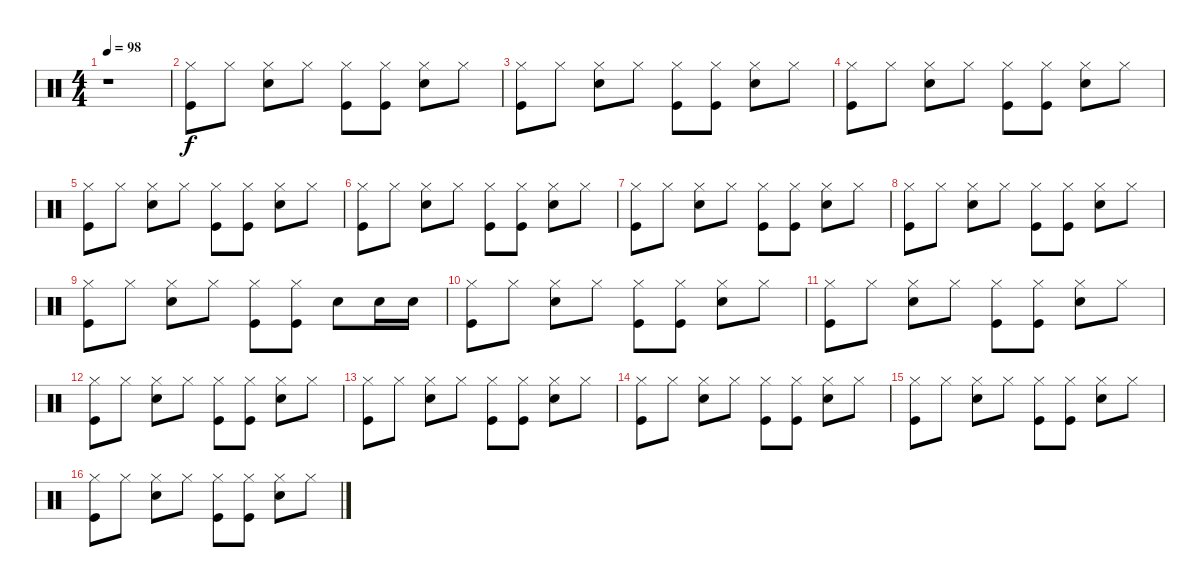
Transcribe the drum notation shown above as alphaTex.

\track "" {instrument percussion}
\staff {score}
\articulation defaults
\ts (4 4)
\tempo 98
\clef neutral
\ks c
r.1{dy f} |
("Hi-Hat (closed)" "Kick (hit)").8 "Hi-Hat (closed)".8 ("Hi-Hat (closed)" "Snare (hit) 2").8 "Hi-Hat (closed)".8 ("Hi-Hat (closed)" "Kick (hit)").8 ("Hi-Hat (closed)" "Kick (hit)").8 ("Hi-Hat (closed)" "Snare (hit) 2").8 "Hi-Hat (closed)".8 |
("Hi-Hat (closed)" "Kick (hit)").8 "Hi-Hat (closed)".8 ("Hi-Hat (closed)" "Snare (hit) 2").8 "Hi-Hat (closed)".8 ("Hi-Hat (closed)" "Kick (hit)").8 ("Hi-Hat (closed)" "Kick (hit)").8 ("Hi-Hat (closed)" "Snare (hit) 2").8 "Hi-Hat (closed)".8 |
("Hi-Hat (closed)" "Kick (hit)").8 "Hi-Hat (closed)".8 ("Hi-Hat (closed)" "Snare (hit) 2").8 "Hi-Hat (closed)".8 ("Hi-Hat (closed)" "Kick (hit)").8 ("Hi-Hat (closed)" "Kick (hit)").8 ("Hi-Hat (closed)" "Snare (hit) 2").8 "Hi-Hat (closed)".8 |
("Hi-Hat (closed)" "Kick (hit)").8 "Hi-Hat (closed)".8 ("Hi-Hat (closed)" "Snare (hit) 2").8 "Hi-Hat (closed)".8 ("Hi-Hat (closed)" "Kick (hit)").8 ("Hi-Hat (closed)" "Kick (hit)").8 ("Hi-Hat (closed)" "Snare (hit) 2").8 "Hi-Hat (closed)".8 |
("Hi-Hat (closed)" "Kick (hit)").8 "Hi-Hat (closed)".8 ("Hi-Hat (closed)" "Snare (hit) 2").8 "Hi-Hat (closed)".8 ("Hi-Hat (closed)" "Kick (hit)").8 ("Hi-Hat (closed)" "Kick (hit)").8 ("Hi-Hat (closed)" "Snare (hit) 2").8 "Hi-Hat (closed)".8 |
("Hi-Hat (closed)" "Kick (hit)").8 "Hi-Hat (closed)".8 ("Hi-Hat (closed)" "Snare (hit) 2").8 "Hi-Hat (closed)".8 ("Hi-Hat (closed)" "Kick (hit)").8 ("Hi-Hat (closed)" "Kick (hit)").8 ("Hi-Hat (closed)" "Snare (hit) 2").8 "Hi-Hat (closed)".8 |
("Hi-Hat (closed)" "Kick (hit)").8 "Hi-Hat (closed)".8 ("Hi-Hat (closed)" "Snare (hit) 2").8 "Hi-Hat (closed)".8 ("Hi-Hat (closed)" "Kick (hit)").8 ("Hi-Hat (closed)" "Kick (hit)").8 ("Hi-Hat (closed)" "Snare (hit) 2").8 "Hi-Hat (closed)".8 |
("Hi-Hat (closed)" "Kick (hit)").8 "Hi-Hat (closed)".8 ("Hi-Hat (closed)" "Snare (hit) 2").8 "Hi-Hat (closed)".8 ("Hi-Hat (closed)" "Kick (hit)").8 ("Hi-Hat (closed)" "Kick (hit)").8 "Snare (hit) 2".8 "Snare (hit) 2".16 "Snare (hit) 2".16 |
("Hi-Hat (closed)" "Kick (hit)").8 "Hi-Hat (closed)".8 ("Hi-Hat (closed)" "Snare (hit) 2").8 "Hi-Hat (closed)".8 ("Hi-Hat (closed)" "Kick (hit)").8 ("Hi-Hat (closed)" "Kick (hit)").8 ("Hi-Hat (closed)" "Snare (hit) 2").8 "Hi-Hat (closed)".8 |
("Hi-Hat (closed)" "Kick (hit)").8 "Hi-Hat (closed)".8 ("Hi-Hat (closed)" "Snare (hit) 2").8 "Hi-Hat (closed)".8 ("Hi-Hat (closed)" "Kick (hit)").8 ("Hi-Hat (closed)" "Kick (hit)").8 ("Hi-Hat (closed)" "Snare (hit) 2").8 "Hi-Hat (closed)".8 |
("Hi-Hat (closed)" "Kick (hit)").8 "Hi-Hat (closed)".8 ("Hi-Hat (closed)" "Snare (hit) 2").8 "Hi-Hat (closed)".8 ("Hi-Hat (closed)" "Kick (hit)").8 ("Hi-Hat (closed)" "Kick (hit)").8 ("Hi-Hat (closed)" "Snare (hit) 2").8 "Hi-Hat (closed)".8 |
("Hi-Hat (closed)" "Kick (hit)").8 "Hi-Hat (closed)".8 ("Hi-Hat (closed)" "Snare (hit) 2").8 "Hi-Hat (closed)".8 ("Hi-Hat (closed)" "Kick (hit)").8 ("Hi-Hat (closed)" "Kick (hit)").8 ("Hi-Hat (closed)" "Snare (hit) 2").8 "Hi-Hat (closed)".8 |
("Hi-Hat (closed)" "Kick (hit)").8 "Hi-Hat (closed)".8 ("Hi-Hat (closed)" "Snare (hit) 2").8 "Hi-Hat (closed)".8 ("Hi-Hat (closed)" "Kick (hit)").8 ("Hi-Hat (closed)" "Kick (hit)").8 ("Hi-Hat (closed)" "Snare (hit) 2").8 "Hi-Hat (closed)".8 |
("Hi-Hat (closed)" "Kick (hit)").8 "Hi-Hat (closed)".8 ("Hi-Hat (closed)" "Snare (hit) 2").8 "Hi-Hat (closed)".8 ("Hi-Hat (closed)" "Kick (hit)").8 ("Hi-Hat (closed)" "Kick (hit)").8 ("Hi-Hat (closed)" "Snare (hit) 2").8 "Hi-Hat (closed)".8 |
("Hi-Hat (closed)" "Kick (hit)").8 "Hi-Hat (closed)".8 ("Hi-Hat (closed)" "Snare (hit) 2").8 "Hi-Hat (closed)".8 ("Hi-Hat (closed)" "Kick (hit)").8 ("Hi-Hat (closed)" "Kick (hit)").8 ("Hi-Hat (closed)" "Snare (hit) 2").8 "Hi-Hat (closed)".8
